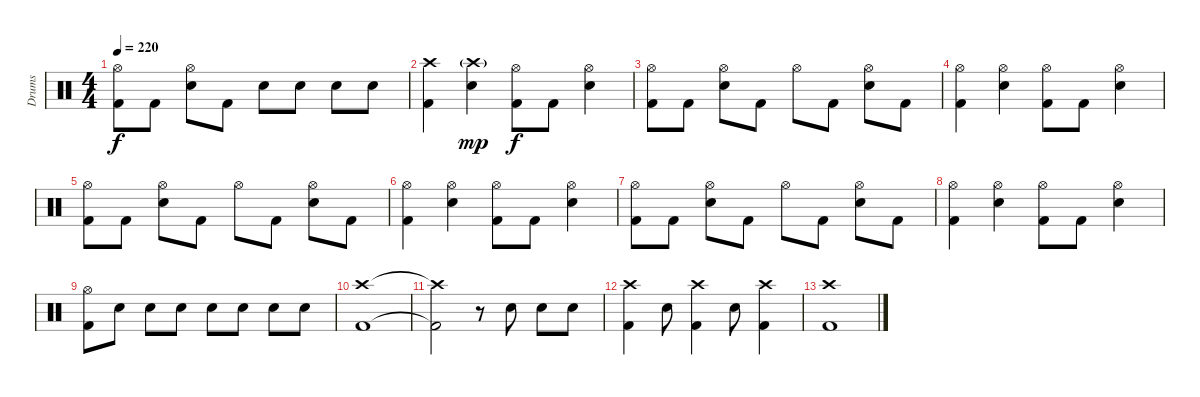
\track ("Drums" "Drums") {instrument percussion}
\staff {score}
\articulation defaults
\ts (4 4)
\tempo 220
\clef neutral
\ks c
("Hi-Hat (open)" "Kick (hit) 2").8{dy f} "Kick (hit) 2".8 ("Hi-Hat (open)" "Snare (hit) 2").8 "Kick (hit) 2".8 "Snare (hit) 2".8 "Snare (hit) 2".8 "Snare (hit) 2".8 "Snare (hit) 2".8 |
("Crash high (hit)" "Kick (hit) 2").4 ("Crash high (hit)"{g} "Snare (hit) 2").4{dy mp} ("Hi-Hat (open)" "Kick (hit) 2").8{dy f} "Kick (hit) 2".8 ("Hi-Hat (open)" "Snare (hit) 2").4 |
("Hi-Hat (open)" "Kick (hit) 2").8 "Kick (hit) 2".8 ("Hi-Hat (open)" "Snare (hit) 2").8 "Kick (hit) 2".8 "Hi-Hat (open)".8 "Kick (hit) 2".8 ("Hi-Hat (open)" "Snare (hit) 2").8 "Kick (hit) 2".8 |
("Hi-Hat (open)" "Kick (hit) 2").4 ("Hi-Hat (open)" "Snare (hit) 2").4 ("Hi-Hat (open)" "Kick (hit) 2").8 "Kick (hit) 2".8 ("Hi-Hat (open)" "Snare (hit) 2").4 |
("Hi-Hat (open)" "Kick (hit) 2").8 "Kick (hit) 2".8 ("Hi-Hat (open)" "Snare (hit) 2").8 "Kick (hit) 2".8 "Hi-Hat (open)".8 "Kick (hit) 2".8 ("Hi-Hat (open)" "Snare (hit) 2").8 "Kick (hit) 2".8 |
("Hi-Hat (open)" "Kick (hit) 2").4 ("Hi-Hat (open)" "Snare (hit) 2").4 ("Hi-Hat (open)" "Kick (hit) 2").8 "Kick (hit) 2".8 ("Hi-Hat (open)" "Snare (hit) 2").4 |
("Hi-Hat (open)" "Kick (hit) 2").8 "Kick (hit) 2".8 ("Hi-Hat (open)" "Snare (hit) 2").8 "Kick (hit) 2".8 "Hi-Hat (open)".8 "Kick (hit) 2".8 ("Hi-Hat (open)" "Snare (hit) 2").8 "Kick (hit) 2".8 |
("Hi-Hat (open)" "Kick (hit) 2").4 ("Hi-Hat (open)" "Snare (hit) 2").4 ("Hi-Hat (open)" "Kick (hit) 2").8 "Kick (hit) 2".8 ("Hi-Hat (open)" "Snare (hit) 2").4 |
("Hi-Hat (open)" "Kick (hit) 2").8 "Snare (hit) 2".8 "Snare (hit) 2".8 "Snare (hit) 2".8 "Snare (hit) 2".8 "Snare (hit) 2".8 "Snare (hit) 2".8 "Snare (hit) 2".8 |
("Crash high (hit)" "Kick (hit) 2").1 |
("Crash high (hit)"{t} "Kick (hit) 2"{t}).2 r.8 "Snare (hit) 2".8 "Snare (hit) 2".8 "Snare (hit) 2".8 |
("Crash high (hit)" "Kick (hit) 2").4 "Snare (hit) 2".8 ("Crash high (hit)" "Kick (hit) 2").4 "Snare (hit) 2".8 ("Crash high (hit)" "Kick (hit) 2").4 |
("Crash high (hit)" "Kick (hit) 2").1
